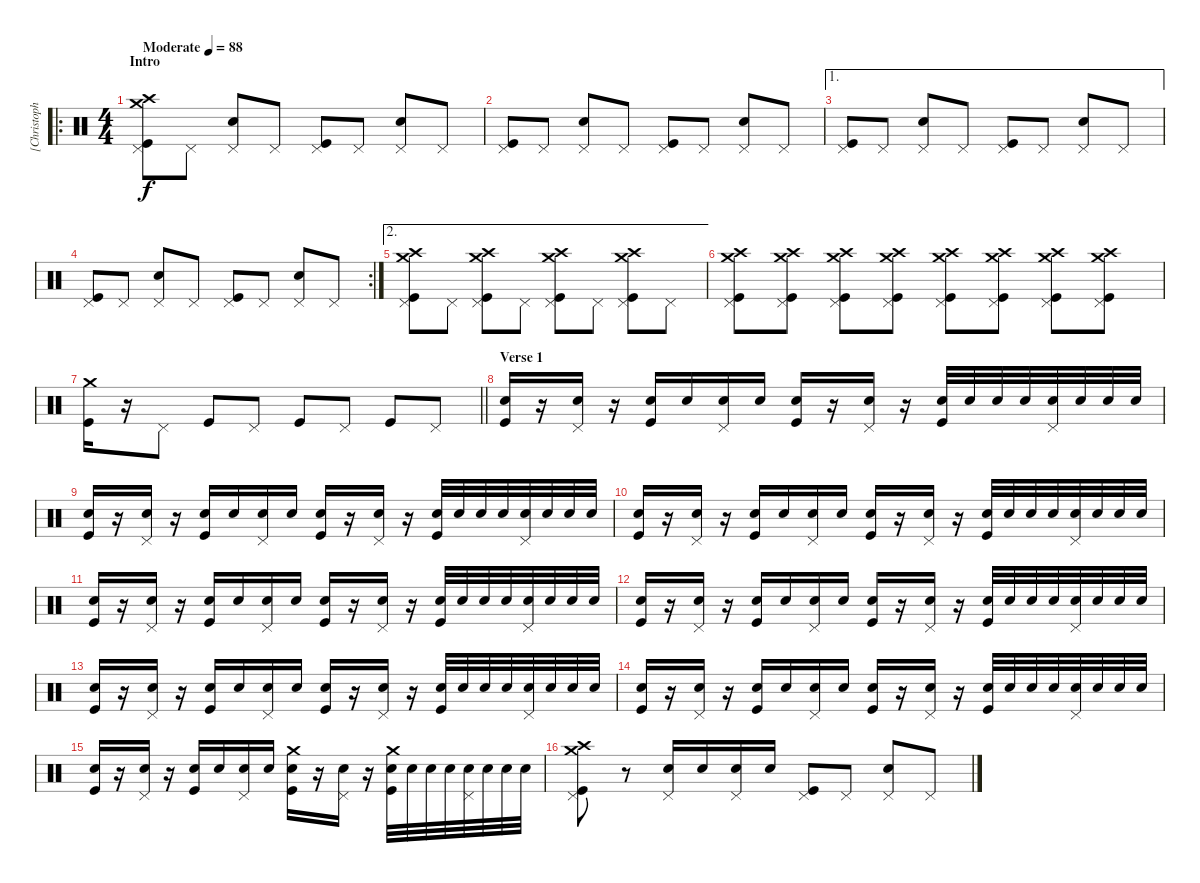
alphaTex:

\track ("[Christoph Schneider]  Drums" "[Christoph") {instrument percussion}
\staff {score}
\articulation defaults
\ro
\ts (4 4)
\section ("" "Intro")
\tempo (88 "Moderate")
\clef neutral
\ks c
("Crash medium (hit)" "Pedal Hi-Hat (hit)" "Crash high (hit)" "Kick (hit)").8{dy f} "Pedal Hi-Hat (hit)".8 ("Pedal Hi-Hat (hit)" "Electric Snare (hit)").8 "Pedal Hi-Hat (hit)".8 ("Pedal Hi-Hat (hit)" "Kick (hit)").8 "Pedal Hi-Hat (hit)".8 ("Pedal Hi-Hat (hit)" "Electric Snare (hit)").8 "Pedal Hi-Hat (hit)".8 |
("Pedal Hi-Hat (hit)" "Kick (hit)").8 "Pedal Hi-Hat (hit)".8 ("Pedal Hi-Hat (hit)" "Electric Snare (hit)").8 "Pedal Hi-Hat (hit)".8 ("Pedal Hi-Hat (hit)" "Kick (hit)").8 "Pedal Hi-Hat (hit)".8 ("Pedal Hi-Hat (hit)" "Electric Snare (hit)").8 "Pedal Hi-Hat (hit)".8 |
\ae 1
("Pedal Hi-Hat (hit)" "Kick (hit)").8 "Pedal Hi-Hat (hit)".8 ("Pedal Hi-Hat (hit)" "Electric Snare (hit)").8 "Pedal Hi-Hat (hit)".8 ("Pedal Hi-Hat (hit)" "Kick (hit)").8 "Pedal Hi-Hat (hit)".8 ("Pedal Hi-Hat (hit)" "Electric Snare (hit)").8 "Pedal Hi-Hat (hit)".8 |
\rc 2
("Pedal Hi-Hat (hit)" "Kick (hit)").8 "Pedal Hi-Hat (hit)".8 ("Pedal Hi-Hat (hit)" "Electric Snare (hit)").8 "Pedal Hi-Hat (hit)".8 ("Pedal Hi-Hat (hit)" "Kick (hit)").8 "Pedal Hi-Hat (hit)".8 ("Pedal Hi-Hat (hit)" "Electric Snare (hit)").8 "Pedal Hi-Hat (hit)".8 |
\ae 2
("Pedal Hi-Hat (hit)" "Crash high (hit)" "Crash medium (hit)" "Kick (hit)").8 "Pedal Hi-Hat (hit)".8 ("Kick (hit)" "Crash high (hit)" "Crash medium (hit)" "Pedal Hi-Hat (hit)").8 "Pedal Hi-Hat (hit)".8 ("Pedal Hi-Hat (hit)" "Crash medium (hit)" "Crash high (hit)" "Kick (hit)").8 "Pedal Hi-Hat (hit)".8 ("Kick (hit)" "Crash medium (hit)" "Crash high (hit)" "Pedal Hi-Hat (hit)").8 "Pedal Hi-Hat (hit)".8 |
("Pedal Hi-Hat (hit)" "Crash high (hit)" "Crash medium (hit)" "Kick (hit)").8 ("Pedal Hi-Hat (hit)" "Crash high (hit)" "Crash medium (hit)" "Kick (hit)").8 ("Pedal Hi-Hat (hit)" "Crash high (hit)" "Crash medium (hit)" "Kick (hit)").8 ("Pedal Hi-Hat (hit)" "Crash high (hit)" "Crash medium (hit)" "Kick (hit)").8 ("Pedal Hi-Hat (hit)" "Crash high (hit)" "Crash medium (hit)" "Kick (hit)").8 ("Pedal Hi-Hat (hit)" "Crash high (hit)" "Crash medium (hit)" "Kick (hit)").8 ("Pedal Hi-Hat (hit)" "Crash high (hit)" "Crash medium (hit)" "Kick (hit)").8 ("Pedal Hi-Hat (hit)" "Crash high (hit)" "Crash medium (hit)" "Kick (hit)").8 |
\barLineRight lightlight
("Crash medium (hit)" "Kick (hit)").16 r.16 "Pedal Hi-Hat (hit)".8 "Kick (hit)".8 "Pedal Hi-Hat (hit)".8 "Kick (hit)".8 "Pedal Hi-Hat (hit)".8 "Kick (hit)".8 "Pedal Hi-Hat (hit)".8 |
\section ("" "Verse 1")
("Kick (hit)" "Electric Snare (hit)").16 r.16 ("Pedal Hi-Hat (hit)" "Electric Snare (hit)").16 r.16 ("Kick (hit)" "Electric Snare (hit)").16 "Electric Snare (hit)".16 ("Pedal Hi-Hat (hit)" "Electric Snare (hit)").16 "Electric Snare (hit)".16 ("Kick (hit)" "Electric Snare (hit)").16 r.16 ("Pedal Hi-Hat (hit)" "Electric Snare (hit)").16 r.16 ("Kick (hit)" "Electric Snare (hit)").32 "Electric Snare (hit)".32 "Electric Snare (hit)".32 "Electric Snare (hit)".32 ("Pedal Hi-Hat (hit)" "Electric Snare (hit)").32 "Electric Snare (hit)".32 "Electric Snare (hit)".32 "Electric Snare (hit)".32 |
("Kick (hit)" "Electric Snare (hit)").16 r.16 ("Pedal Hi-Hat (hit)" "Electric Snare (hit)").16 r.16 ("Kick (hit)" "Electric Snare (hit)").16 "Electric Snare (hit)".16 ("Pedal Hi-Hat (hit)" "Electric Snare (hit)").16 "Electric Snare (hit)".16 ("Kick (hit)" "Electric Snare (hit)").16 r.16 ("Pedal Hi-Hat (hit)" "Electric Snare (hit)").16 r.16 ("Kick (hit)" "Electric Snare (hit)").32 "Electric Snare (hit)".32 "Electric Snare (hit)".32 "Electric Snare (hit)".32 ("Pedal Hi-Hat (hit)" "Electric Snare (hit)").32 "Electric Snare (hit)".32 "Electric Snare (hit)".32 "Electric Snare (hit)".32 |
("Kick (hit)" "Electric Snare (hit)").16 r.16 ("Pedal Hi-Hat (hit)" "Electric Snare (hit)").16 r.16 ("Kick (hit)" "Electric Snare (hit)").16 "Electric Snare (hit)".16 ("Pedal Hi-Hat (hit)" "Electric Snare (hit)").16 "Electric Snare (hit)".16 ("Kick (hit)" "Electric Snare (hit)").16 r.16 ("Pedal Hi-Hat (hit)" "Electric Snare (hit)").16 r.16 ("Kick (hit)" "Electric Snare (hit)").32 "Electric Snare (hit)".32 "Electric Snare (hit)".32 "Electric Snare (hit)".32 ("Pedal Hi-Hat (hit)" "Electric Snare (hit)").32 "Electric Snare (hit)".32 "Electric Snare (hit)".32 "Electric Snare (hit)".32 |
("Kick (hit)" "Electric Snare (hit)").16 r.16 ("Pedal Hi-Hat (hit)" "Electric Snare (hit)").16 r.16 ("Kick (hit)" "Electric Snare (hit)").16 "Electric Snare (hit)".16 ("Pedal Hi-Hat (hit)" "Electric Snare (hit)").16 "Electric Snare (hit)".16 ("Kick (hit)" "Electric Snare (hit)").16 r.16 ("Pedal Hi-Hat (hit)" "Electric Snare (hit)").16 r.16 ("Kick (hit)" "Electric Snare (hit)").32 "Electric Snare (hit)".32 "Electric Snare (hit)".32 "Electric Snare (hit)".32 ("Pedal Hi-Hat (hit)" "Electric Snare (hit)").32 "Electric Snare (hit)".32 "Electric Snare (hit)".32 "Electric Snare (hit)".32 |
("Kick (hit)" "Electric Snare (hit)").16 r.16 ("Pedal Hi-Hat (hit)" "Electric Snare (hit)").16 r.16 ("Kick (hit)" "Electric Snare (hit)").16 "Electric Snare (hit)".16 ("Pedal Hi-Hat (hit)" "Electric Snare (hit)").16 "Electric Snare (hit)".16 ("Kick (hit)" "Electric Snare (hit)").16 r.16 ("Pedal Hi-Hat (hit)" "Electric Snare (hit)").16 r.16 ("Kick (hit)" "Electric Snare (hit)").32 "Electric Snare (hit)".32 "Electric Snare (hit)".32 "Electric Snare (hit)".32 ("Pedal Hi-Hat (hit)" "Electric Snare (hit)").32 "Electric Snare (hit)".32 "Electric Snare (hit)".32 "Electric Snare (hit)".32 |
("Kick (hit)" "Electric Snare (hit)").16 r.16 ("Pedal Hi-Hat (hit)" "Electric Snare (hit)").16 r.16 ("Kick (hit)" "Electric Snare (hit)").16 "Electric Snare (hit)".16 ("Pedal Hi-Hat (hit)" "Electric Snare (hit)").16 "Electric Snare (hit)".16 ("Kick (hit)" "Electric Snare (hit)").16 r.16 ("Pedal Hi-Hat (hit)" "Electric Snare (hit)").16 r.16 ("Kick (hit)" "Electric Snare (hit)").32 "Electric Snare (hit)".32 "Electric Snare (hit)".32 "Electric Snare (hit)".32 ("Pedal Hi-Hat (hit)" "Electric Snare (hit)").32 "Electric Snare (hit)".32 "Electric Snare (hit)".32 "Electric Snare (hit)".32 |
("Kick (hit)" "Electric Snare (hit)").16 r.16 ("Pedal Hi-Hat (hit)" "Electric Snare (hit)").16 r.16 ("Kick (hit)" "Electric Snare (hit)").16 "Electric Snare (hit)".16 ("Pedal Hi-Hat (hit)" "Electric Snare (hit)").16 "Electric Snare (hit)".16 ("Kick (hit)" "Electric Snare (hit)").16 r.16 ("Pedal Hi-Hat (hit)" "Electric Snare (hit)").16 r.16 ("Kick (hit)" "Electric Snare (hit)").32 "Electric Snare (hit)".32 "Electric Snare (hit)".32 "Electric Snare (hit)".32 ("Pedal Hi-Hat (hit)" "Electric Snare (hit)").32 "Electric Snare (hit)".32 "Electric Snare (hit)".32 "Electric Snare (hit)".32 |
("Kick (hit)" "Electric Snare (hit)").16 r.16 ("Pedal Hi-Hat (hit)" "Electric Snare (hit)").16 r.16 ("Kick (hit)" "Electric Snare (hit)").16 "Electric Snare (hit)".16 ("Pedal Hi-Hat (hit)" "Electric Snare (hit)").16 "Electric Snare (hit)".16 ("Crash medium (hit)" "Kick (hit)" "Electric Snare (hit)").16 r.16 ("Pedal Hi-Hat (hit)" "Electric Snare (hit)").16 r.16 ("Crash medium (hit)" "Kick (hit)" "Electric Snare (hit)").32 "Electric Snare (hit)".32 "Electric Snare (hit)".32 "Electric Snare (hit)".32 ("Pedal Hi-Hat (hit)" "Electric Snare (hit)").32 "Electric Snare (hit)".32 "Electric Snare (hit)".32 "Electric Snare (hit)".32 |
("Crash medium (hit)" "Pedal Hi-Hat (hit)" "Crash high (hit)" "Kick (hit)").8 r.8 ("Pedal Hi-Hat (hit)" "Electric Snare (hit)").16 "Electric Snare (hit)".16 ("Pedal Hi-Hat (hit)" "Electric Snare (hit)").16 "Electric Snare (hit)".16 ("Pedal Hi-Hat (hit)" "Kick (hit)").8 "Pedal Hi-Hat (hit)".8 ("Pedal Hi-Hat (hit)" "Electric Snare (hit)").8 "Pedal Hi-Hat (hit)".8
